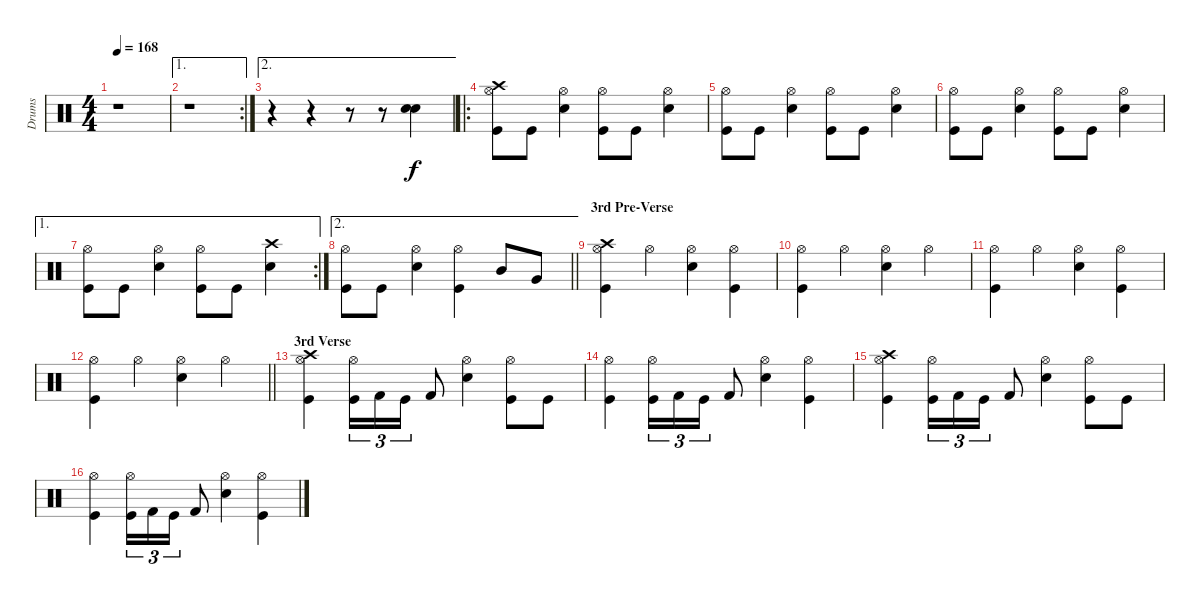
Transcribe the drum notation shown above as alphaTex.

\track ("Drums" "Drums") {instrument percussion}
\staff {score}
\articulation defaults
\ts (4 4)
\tempo 168
\clef neutral
\ks c
r.1{dy f} |
\ae 1
\rc 2
r.1 |
\ae 2
r.4 r.4 r.8 r.8 ("Snare (hit) 2" "Snare (hit) 2").4{bu 120} |
\ro
("Crash high (hit)" "Hi-Hat (open)" "Kick (hit)").8 "Kick (hit)".8 ("Hi-Hat (open)" "Snare (hit) 2").4 ("Hi-Hat (open)" "Kick (hit)").8 "Kick (hit)".8 ("Hi-Hat (open)" "Snare (hit) 2").4 |
("Hi-Hat (open)" "Kick (hit)").8 "Kick (hit)".8 ("Hi-Hat (open)" "Snare (hit) 2").4 ("Hi-Hat (open)" "Kick (hit)").8 "Kick (hit)".8 ("Hi-Hat (open)" "Snare (hit) 2").4 |
("Hi-Hat (open)" "Kick (hit)").8 "Kick (hit)".8 ("Hi-Hat (open)" "Snare (hit) 2").4 ("Hi-Hat (open)" "Kick (hit)").8 "Kick (hit)".8 ("Hi-Hat (open)" "Snare (hit) 2").4 |
\ae 1
\rc 2
("Hi-Hat (open)" "Kick (hit)").8 "Kick (hit)".8 ("Hi-Hat (open)" "Snare (hit) 2").4 ("Hi-Hat (open)" "Kick (hit)").8 "Kick (hit)".8 ("Crash high (hit)" "Snare (hit) 2").4 |
\ae 2
\barLineRight lightlight
("Hi-Hat (open)" "Kick (hit)").8 "Kick (hit)".8 ("Hi-Hat (open)" "Snare (hit) 2").4 ("Hi-Hat (open)" "Kick (hit)").4 "Mid Tom (hit)".8 "Very Low Tom (hit)".8 |
\section ("" "3rd Pre-Verse")
("Crash high (hit)" "Hi-Hat (open)" "Kick (hit)").4 "Hi-Hat (open)".4 ("Hi-Hat (open)" "Snare (hit) 2").4 ("Hi-Hat (open)" "Kick (hit)").4 |
("Hi-Hat (open)" "Kick (hit)").4 "Hi-Hat (open)".4 ("Hi-Hat (open)" "Snare (hit) 2").4 "Hi-Hat (open)".4 |
("Hi-Hat (open)" "Kick (hit)").4 "Hi-Hat (open)".4 ("Hi-Hat (open)" "Snare (hit) 2").4 ("Hi-Hat (open)" "Kick (hit)").4 |
\barLineRight lightlight
("Hi-Hat (open)" "Kick (hit)").4 "Hi-Hat (open)".4 ("Hi-Hat (open)" "Snare (hit) 2").4 "Hi-Hat (open)".4 |
\section ("" "3rd Verse")
("Crash high (hit)" "Hi-Hat (open)" "Kick (hit)").4 ("Hi-Hat (open)" "Kick (hit)").16{tu (3 2)} "Kick (hit) 2".16{tu (3 2)} "Kick (hit)".16{tu (3 2)} "Kick (hit) 2".8 ("Hi-Hat (open)" "Snare (hit) 2").4 ("Hi-Hat (open)" "Kick (hit)").8 "Kick (hit)".8 |
("Hi-Hat (open)" "Kick (hit)").4 ("Hi-Hat (open)" "Kick (hit)").16{tu (3 2)} "Kick (hit) 2".16{tu (3 2)} "Kick (hit)".16{tu (3 2)} "Kick (hit) 2".8 ("Hi-Hat (open)" "Snare (hit) 2").4 ("Hi-Hat (open)" "Kick (hit)").4 |
("Crash high (hit)" "Hi-Hat (open)" "Kick (hit)").4 ("Hi-Hat (open)" "Kick (hit)").16{tu (3 2)} "Kick (hit) 2".16{tu (3 2)} "Kick (hit)".16{tu (3 2)} "Kick (hit) 2".8 ("Hi-Hat (open)" "Snare (hit) 2").4 ("Hi-Hat (open)" "Kick (hit)").8 "Kick (hit)".8 |
("Hi-Hat (open)" "Kick (hit)").4 ("Hi-Hat (open)" "Kick (hit)").16{tu (3 2)} "Kick (hit) 2".16{tu (3 2)} "Kick (hit)".16{tu (3 2)} "Kick (hit) 2".8 ("Hi-Hat (open)" "Snare (hit) 2").4 ("Hi-Hat (open)" "Kick (hit)").4
